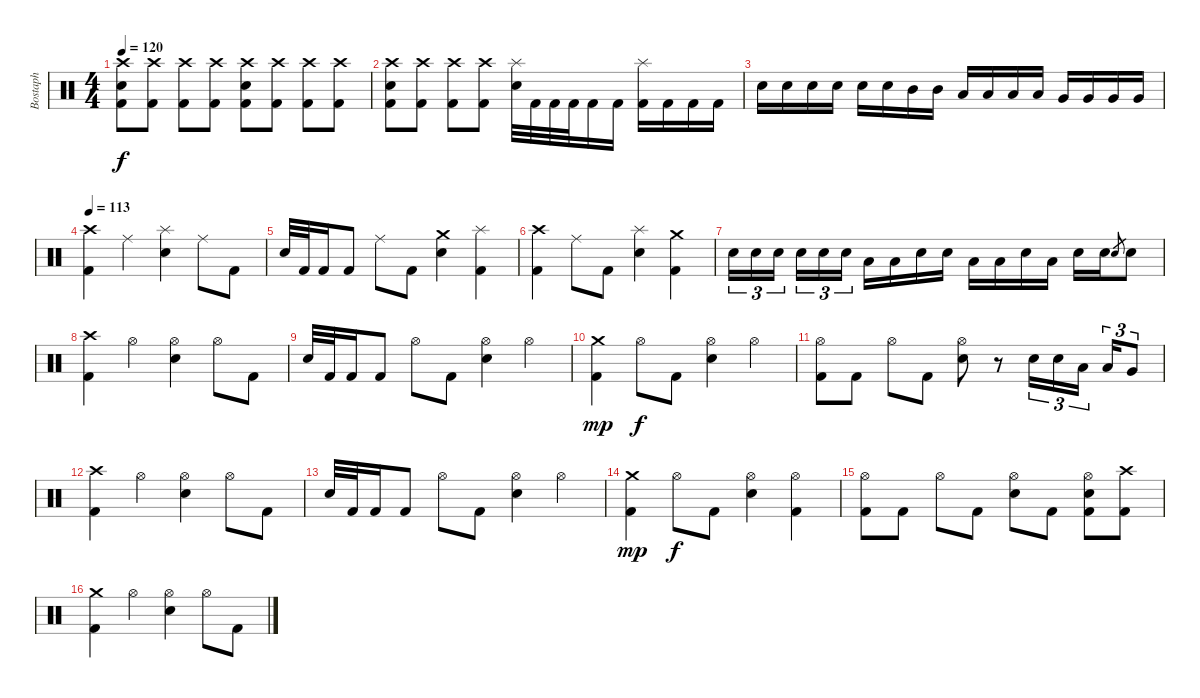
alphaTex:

\track ("Bostaph" "Bostaph") {instrument percussion}
\staff {score}
\articulation defaults
\ts (4 4)
\tempo 120
\clef neutral
\ks c
("Crash high (hit)" "Electric Snare (hit)" "Kick (hit) 2").8{dy f} ("Crash high (hit)" "Kick (hit) 2").8 ("Crash high (hit)" "Kick (hit) 2").8 ("Crash high (hit)" "Kick (hit) 2").8 ("Crash high (hit)" "Electric Snare (hit)" "Kick (hit) 2").8 ("Crash high (hit)" "Kick (hit) 2").8 ("Crash high (hit)" "Kick (hit) 2").8 ("Crash high (hit)" "Kick (hit) 2").8 |
("Crash high (hit)" "Electric Snare (hit)" "Kick (hit) 2").8 ("Crash high (hit)" "Kick (hit) 2").8 ("Crash high (hit)" "Kick (hit) 2").8 ("Crash high (hit)" "Kick (hit) 2").8 ("Splash (hit)" "Electric Snare (hit)").32 "Kick (hit) 2".32 "Kick (hit) 2".32 "Kick (hit) 2".32 "Kick (hit) 2".16 "Kick (hit) 2".16 ("Splash (hit)" "Kick (hit) 2").16 "Kick (hit) 2".16 "Kick (hit) 2".16 "Kick (hit) 2".16 |
"Electric Snare (hit)".16 "Electric Snare (hit)".16 "Electric Snare (hit)".16 "Electric Snare (hit)".16 "Electric Snare (hit)".16 "Electric Snare (hit)".16 "Mid Tom (hit)".16 "Mid Tom (hit)".16 "Low Tom (hit)".16 "Low Tom (hit)".16 "Low Tom (hit)".16 "Low Tom (hit)".16 "Very Low Tom (hit)".16 "Very Low Tom (hit)".16 "Very Low Tom (hit)".16 "Very Low Tom (hit)".16 |
\tempo 113
("Crash high (hit)" "Kick (hit) 2").4 "Ride (middle)".4 ("Splash (hit)" "Electric Snare (hit)").4 "Ride (middle)".8 "Kick (hit) 2".8 |
"Electric Snare (hit)".32 "Kick (hit) 2".32 "Kick (hit) 2".16 "Kick (hit) 2".8 "Ride (middle)".8 "Kick (hit) 2".8 ("Crash medium (hit)" "Electric Snare (hit)").4 ("Splash (hit)" "Kick (hit) 2").4 |
("Crash high (hit)" "Kick (hit) 2").4 "Ride (middle)".8 "Kick (hit) 2".8 ("Splash (hit)" "Electric Snare (hit)").4 ("Crash medium (hit)" "Kick (hit) 2").4 |
"Electric Snare (hit)".16{tu (3 2)} "Electric Snare (hit)".16{tu (3 2)} "Electric Snare (hit)".16{tu (3 2)} "Electric Snare (hit)".16{tu (3 2)} "Electric Snare (hit)".16{tu (3 2)} "Electric Snare (hit)".16{tu (3 2)} "Low Tom (hit)".16 "Low Tom (hit)".16 "Electric Snare (hit)".16 "Electric Snare (hit)".16 "Low Tom (hit)".16 "Low Tom (hit)".16 "Electric Snare (hit)".16 "Low Tom (hit)".16 "Electric Snare (hit)".16 "Electric Snare (hit)".16 "Electric Snare (hit)".8{gr} "Electric Snare (hit)".8 |
("Crash high (hit)" "Kick (hit) 2").4 "Hi-Hat (open)".4 ("Electric Snare (hit)" "Hi-Hat (open)").4 "Hi-Hat (open)".8 "Kick (hit) 2".8 |
"Electric Snare (hit)".32 "Kick (hit) 2".32 "Kick (hit) 2".16 "Kick (hit) 2".8 "Hi-Hat (open)".8 "Kick (hit) 2".8 ("Electric Snare (hit)" "Hi-Hat (open)").4 "Hi-Hat (open)".4 |
("Kick (hit) 2" "Crash medium (hit)").4{dy mp} "Hi-Hat (open)".8{dy f} "Kick (hit) 2".8 ("Electric Snare (hit)" "Hi-Hat (open)").4 "Hi-Hat (open)".4 |
("Hi-Hat (open)" "Kick (hit) 2").8 "Kick (hit) 2".8 "Hi-Hat (open)".8 "Kick (hit) 2".8 ("Hi-Hat (open)" "Electric Snare (hit)").8 r.8 "Electric Snare (hit)".16{tu (3 2)} "Electric Snare (hit)".16{tu (3 2)} "Low Tom (hit)".16{tu (3 2)} "Low Tom (hit)".16{tu (3 2)} "Very Low Tom (hit)".8{tu (3 2)} |
("Crash high (hit)" "Kick (hit) 2").4 "Hi-Hat (open)".4 ("Electric Snare (hit)" "Hi-Hat (open)").4 "Hi-Hat (open)".8 "Kick (hit) 2".8 |
"Electric Snare (hit)".32 "Kick (hit) 2".32 "Kick (hit) 2".16 "Kick (hit) 2".8 "Hi-Hat (open)".8 "Kick (hit) 2".8 ("Electric Snare (hit)" "Hi-Hat (open)").4 "Hi-Hat (open)".4 |
("Kick (hit) 2" "Crash medium (hit)").4{dy mp} "Hi-Hat (open)".8{dy f} "Kick (hit) 2".8 ("Electric Snare (hit)" "Hi-Hat (open)").4 ("Kick (hit) 2" "Hi-Hat (open)").4 |
("Hi-Hat (open)" "Kick (hit) 2").8 "Kick (hit) 2".8 "Hi-Hat (open)".8 "Kick (hit) 2".8 ("Hi-Hat (open)" "Electric Snare (hit)").8 "Kick (hit) 2".8 ("Hi-Hat (open)" "Electric Snare (hit)" "Kick (hit) 2").8 ("Crash high (hit)" "Kick (hit) 2").8 |
("Crash medium (hit)" "Kick (hit) 2").4 "Hi-Hat (open)".4 ("Electric Snare (hit)" "Hi-Hat (open)").4 "Hi-Hat (open)".8 "Kick (hit) 2".8
